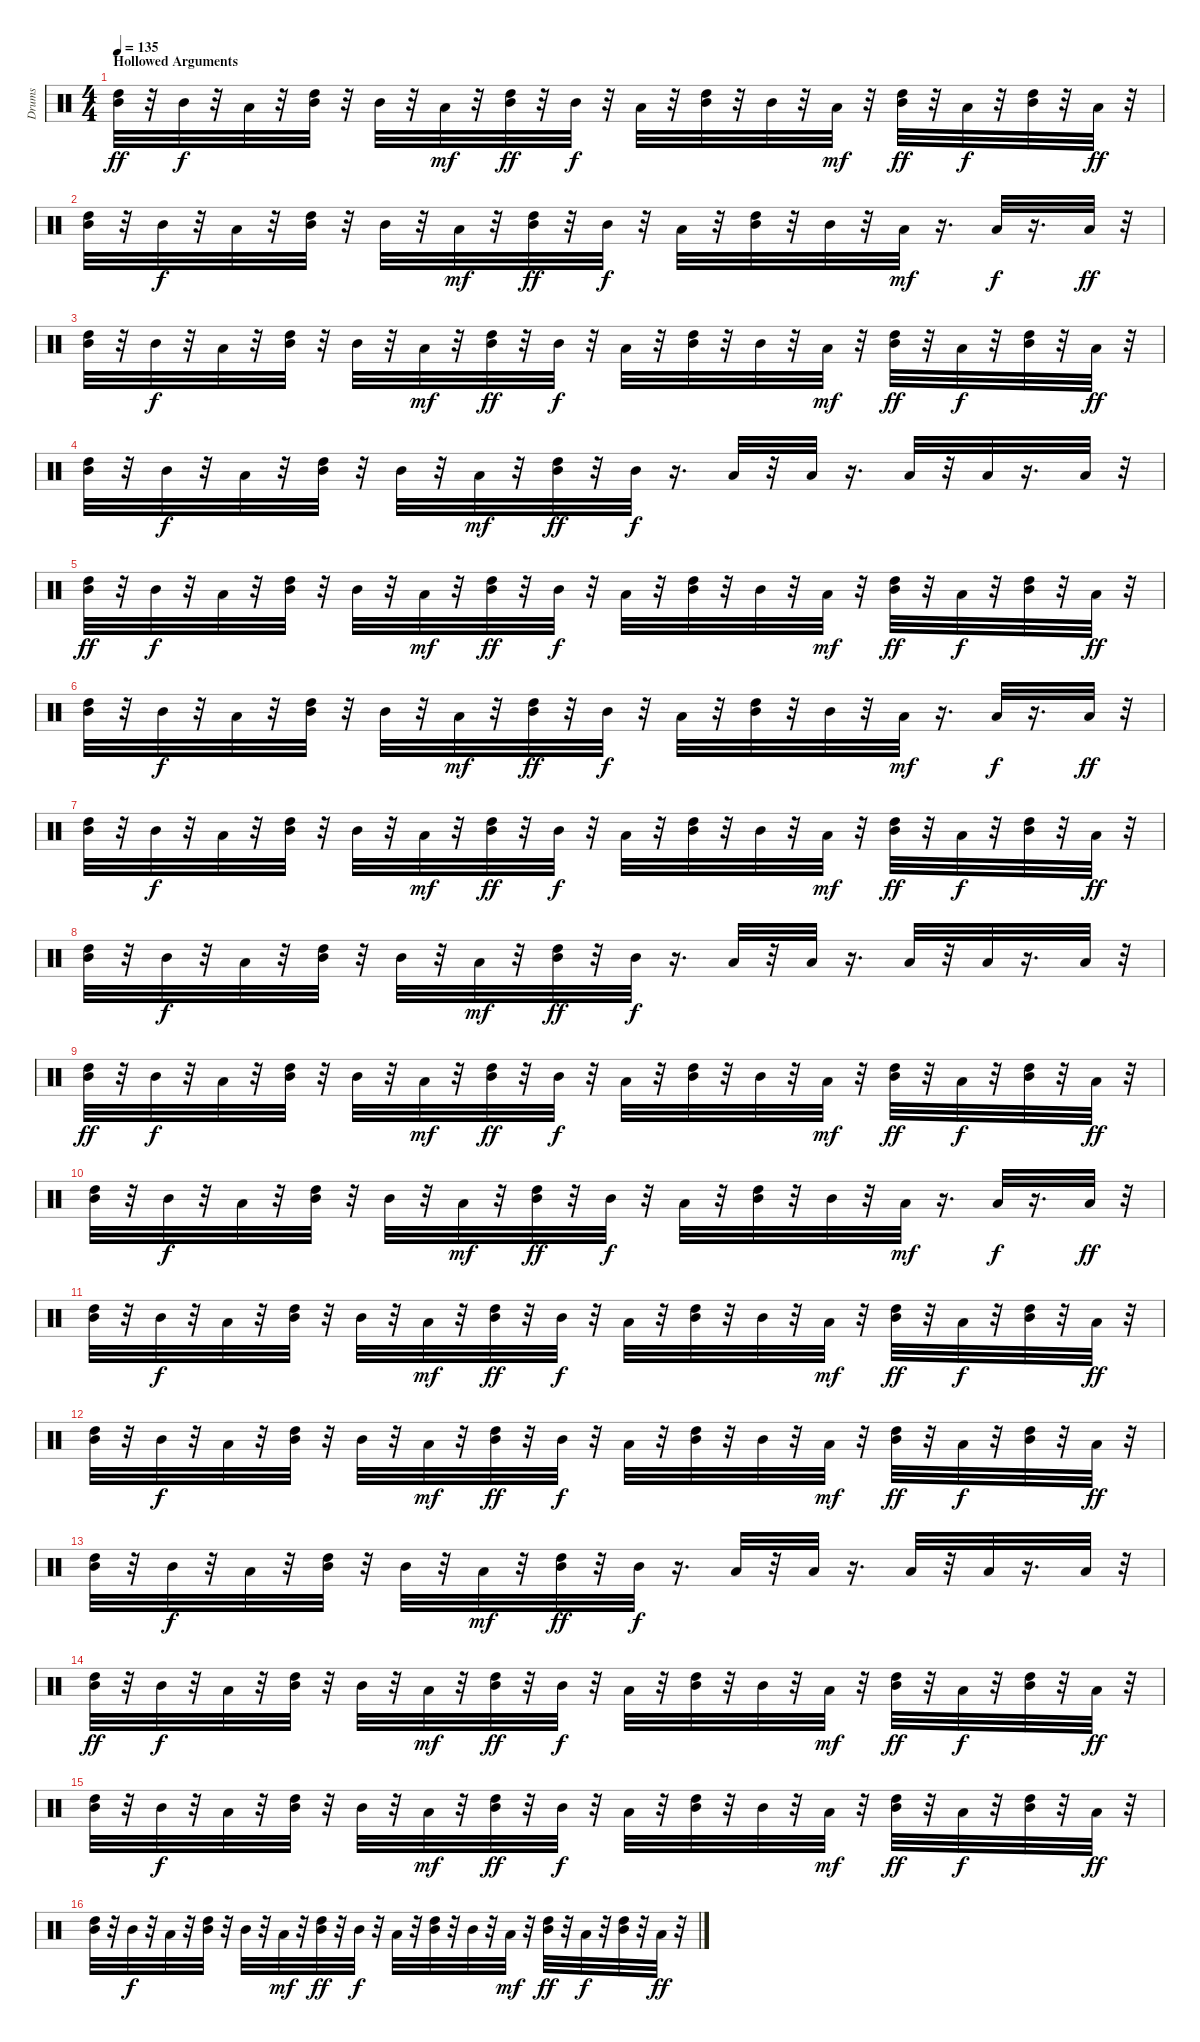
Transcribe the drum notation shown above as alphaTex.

\track ("Drums" "Drums") {instrument percussion}
\staff {score}
\articulation defaults
\ts (4 4)
\section ("" "Hollowed Arguments")
\tempo 135
\clef neutral
\ks c
("High Tom (hit)" "Mid Tom (hit)").32{dy ff} r.32 "Mid Tom (hit)".32{dy f} r.32 "Low Tom (hit)".32 r.32 ("High Tom (hit)" "Mid Tom (hit)").32 r.32 "Mid Tom (hit)".32 r.32 "Low Tom (hit)".32{dy mf} r.32 ("High Tom (hit)" "Mid Tom (hit)").32{dy ff} r.32 "Mid Tom (hit)".32{dy f} r.32 "Low Tom (hit)".32 r.32 ("High Tom (hit)" "Mid Tom (hit)").32 r.32 "Mid Tom (hit)".32 r.32 "Low Tom (hit)".32{dy mf} r.32 ("High Tom (hit)" "Mid Tom (hit)").32{dy ff} r.32 "Low Tom (hit)".32{dy f} r.32 ("High Tom (hit)" "Mid Tom (hit)").32 r.32 "Low Tom (hit)".32{dy ff} r.32 |
("High Tom (hit)" "Mid Tom (hit)").32 r.32 "Mid Tom (hit)".32{dy f} r.32 "Low Tom (hit)".32 r.32 ("High Tom (hit)" "Mid Tom (hit)").32 r.32 "Mid Tom (hit)".32 r.32 "Low Tom (hit)".32{dy mf} r.32 ("High Tom (hit)" "Mid Tom (hit)").32{dy ff} r.32 "Mid Tom (hit)".32{dy f} r.32 "Low Tom (hit)".32 r.32 ("High Tom (hit)" "Mid Tom (hit)").32 r.32 "Mid Tom (hit)".32 r.32 "Low Tom (hit)".32{dy mf} r.16{d} "Low Tom (hit)".32{dy f} r.16{d} "Low Tom (hit)".32{dy ff} r.32 |
("High Tom (hit)" "Mid Tom (hit)").32 r.32 "Mid Tom (hit)".32{dy f} r.32 "Low Tom (hit)".32 r.32 ("High Tom (hit)" "Mid Tom (hit)").32 r.32 "Mid Tom (hit)".32 r.32 "Low Tom (hit)".32{dy mf} r.32 ("High Tom (hit)" "Mid Tom (hit)").32{dy ff} r.32 "Mid Tom (hit)".32{dy f} r.32 "Low Tom (hit)".32 r.32 ("High Tom (hit)" "Mid Tom (hit)").32 r.32 "Mid Tom (hit)".32 r.32 "Low Tom (hit)".32{dy mf} r.32 ("High Tom (hit)" "Mid Tom (hit)").32{dy ff} r.32 "Low Tom (hit)".32{dy f} r.32 ("High Tom (hit)" "Mid Tom (hit)").32 r.32 "Low Tom (hit)".32{dy ff} r.32 |
("High Tom (hit)" "Mid Tom (hit)").32 r.32 "Mid Tom (hit)".32{dy f} r.32 "Low Tom (hit)".32 r.32 ("High Tom (hit)" "Mid Tom (hit)").32 r.32 "Mid Tom (hit)".32 r.32 "Low Tom (hit)".32{dy mf} r.32 ("High Tom (hit)" "Mid Tom (hit)").32{dy ff} r.32 "Mid Tom (hit)".32{dy f} r.16{d} "Low Tom (hit)".32 r.32 "Low Tom (hit)".32 r.16{d} "Low Tom (hit)".32 r.32 "Low Tom (hit)".32 r.16{d} "Low Tom (hit)".32 r.32 |
("High Tom (hit)" "Mid Tom (hit)").32{dy ff} r.32 "Mid Tom (hit)".32{dy f} r.32 "Low Tom (hit)".32 r.32 ("High Tom (hit)" "Mid Tom (hit)").32 r.32 "Mid Tom (hit)".32 r.32 "Low Tom (hit)".32{dy mf} r.32 ("High Tom (hit)" "Mid Tom (hit)").32{dy ff} r.32 "Mid Tom (hit)".32{dy f} r.32 "Low Tom (hit)".32 r.32 ("High Tom (hit)" "Mid Tom (hit)").32 r.32 "Mid Tom (hit)".32 r.32 "Low Tom (hit)".32{dy mf} r.32 ("High Tom (hit)" "Mid Tom (hit)").32{dy ff} r.32 "Low Tom (hit)".32{dy f} r.32 ("High Tom (hit)" "Mid Tom (hit)").32 r.32 "Low Tom (hit)".32{dy ff} r.32 |
("High Tom (hit)" "Mid Tom (hit)").32 r.32 "Mid Tom (hit)".32{dy f} r.32 "Low Tom (hit)".32 r.32 ("High Tom (hit)" "Mid Tom (hit)").32 r.32 "Mid Tom (hit)".32 r.32 "Low Tom (hit)".32{dy mf} r.32 ("High Tom (hit)" "Mid Tom (hit)").32{dy ff} r.32 "Mid Tom (hit)".32{dy f} r.32 "Low Tom (hit)".32 r.32 ("High Tom (hit)" "Mid Tom (hit)").32 r.32 "Mid Tom (hit)".32 r.32 "Low Tom (hit)".32{dy mf} r.16{d} "Low Tom (hit)".32{dy f} r.16{d} "Low Tom (hit)".32{dy ff} r.32 |
("High Tom (hit)" "Mid Tom (hit)").32 r.32 "Mid Tom (hit)".32{dy f} r.32 "Low Tom (hit)".32 r.32 ("High Tom (hit)" "Mid Tom (hit)").32 r.32 "Mid Tom (hit)".32 r.32 "Low Tom (hit)".32{dy mf} r.32 ("High Tom (hit)" "Mid Tom (hit)").32{dy ff} r.32 "Mid Tom (hit)".32{dy f} r.32 "Low Tom (hit)".32 r.32 ("High Tom (hit)" "Mid Tom (hit)").32 r.32 "Mid Tom (hit)".32 r.32 "Low Tom (hit)".32{dy mf} r.32 ("High Tom (hit)" "Mid Tom (hit)").32{dy ff} r.32 "Low Tom (hit)".32{dy f} r.32 ("High Tom (hit)" "Mid Tom (hit)").32 r.32 "Low Tom (hit)".32{dy ff} r.32 |
("High Tom (hit)" "Mid Tom (hit)").32 r.32 "Mid Tom (hit)".32{dy f} r.32 "Low Tom (hit)".32 r.32 ("High Tom (hit)" "Mid Tom (hit)").32 r.32 "Mid Tom (hit)".32 r.32 "Low Tom (hit)".32{dy mf} r.32 ("High Tom (hit)" "Mid Tom (hit)").32{dy ff} r.32 "Mid Tom (hit)".32{dy f} r.16{d} "Low Tom (hit)".32 r.32 "Low Tom (hit)".32 r.16{d} "Low Tom (hit)".32 r.32 "Low Tom (hit)".32 r.16{d} "Low Tom (hit)".32 r.32 |
("High Tom (hit)" "Mid Tom (hit)").32{dy ff} r.32 "Mid Tom (hit)".32{dy f} r.32 "Low Tom (hit)".32 r.32 ("High Tom (hit)" "Mid Tom (hit)").32 r.32 "Mid Tom (hit)".32 r.32 "Low Tom (hit)".32{dy mf} r.32 ("High Tom (hit)" "Mid Tom (hit)").32{dy ff} r.32 "Mid Tom (hit)".32{dy f} r.32 "Low Tom (hit)".32 r.32 ("High Tom (hit)" "Mid Tom (hit)").32 r.32 "Mid Tom (hit)".32 r.32 "Low Tom (hit)".32{dy mf} r.32 ("High Tom (hit)" "Mid Tom (hit)").32{dy ff} r.32 "Low Tom (hit)".32{dy f} r.32 ("High Tom (hit)" "Mid Tom (hit)").32 r.32 "Low Tom (hit)".32{dy ff} r.32 |
("High Tom (hit)" "Mid Tom (hit)").32 r.32 "Mid Tom (hit)".32{dy f} r.32 "Low Tom (hit)".32 r.32 ("High Tom (hit)" "Mid Tom (hit)").32 r.32 "Mid Tom (hit)".32 r.32 "Low Tom (hit)".32{dy mf} r.32 ("High Tom (hit)" "Mid Tom (hit)").32{dy ff} r.32 "Mid Tom (hit)".32{dy f} r.32 "Low Tom (hit)".32 r.32 ("High Tom (hit)" "Mid Tom (hit)").32 r.32 "Mid Tom (hit)".32 r.32 "Low Tom (hit)".32{dy mf} r.16{d} "Low Tom (hit)".32{dy f} r.16{d} "Low Tom (hit)".32{dy ff} r.32 |
("High Tom (hit)" "Mid Tom (hit)").32 r.32 "Mid Tom (hit)".32{dy f} r.32 "Low Tom (hit)".32 r.32 ("High Tom (hit)" "Mid Tom (hit)").32 r.32 "Mid Tom (hit)".32 r.32 "Low Tom (hit)".32{dy mf} r.32 ("High Tom (hit)" "Mid Tom (hit)").32{dy ff} r.32 "Mid Tom (hit)".32{dy f} r.32 "Low Tom (hit)".32 r.32 ("High Tom (hit)" "Mid Tom (hit)").32 r.32 "Mid Tom (hit)".32 r.32 "Low Tom (hit)".32{dy mf} r.32 ("High Tom (hit)" "Mid Tom (hit)").32{dy ff} r.32 "Low Tom (hit)".32{dy f} r.32 ("High Tom (hit)" "Mid Tom (hit)").32 r.32 "Low Tom (hit)".32{dy ff} r.32 |
("High Tom (hit)" "Mid Tom (hit)").32 r.32 "Mid Tom (hit)".32{dy f} r.32 "Low Tom (hit)".32 r.32 ("High Tom (hit)" "Mid Tom (hit)").32 r.32 "Mid Tom (hit)".32 r.32 "Low Tom (hit)".32{dy mf} r.32 ("High Tom (hit)" "Mid Tom (hit)").32{dy ff} r.32 "Mid Tom (hit)".32{dy f} r.32 "Low Tom (hit)".32 r.32 ("High Tom (hit)" "Mid Tom (hit)").32 r.32 "Mid Tom (hit)".32 r.32 "Low Tom (hit)".32{dy mf} r.32 ("High Tom (hit)" "Mid Tom (hit)").32{dy ff} r.32 "Low Tom (hit)".32{dy f} r.32 ("High Tom (hit)" "Mid Tom (hit)").32 r.32 "Low Tom (hit)".32{dy ff} r.32 |
("High Tom (hit)" "Mid Tom (hit)").32 r.32 "Mid Tom (hit)".32{dy f} r.32 "Low Tom (hit)".32 r.32 ("High Tom (hit)" "Mid Tom (hit)").32 r.32 "Mid Tom (hit)".32 r.32 "Low Tom (hit)".32{dy mf} r.32 ("High Tom (hit)" "Mid Tom (hit)").32{dy ff} r.32 "Mid Tom (hit)".32{dy f} r.16{d} "Low Tom (hit)".32 r.32 "Low Tom (hit)".32 r.16{d} "Low Tom (hit)".32 r.32 "Low Tom (hit)".32 r.16{d} "Low Tom (hit)".32 r.32 |
("High Tom (hit)" "Mid Tom (hit)").32{dy ff} r.32 "Mid Tom (hit)".32{dy f} r.32 "Low Tom (hit)".32 r.32 ("High Tom (hit)" "Mid Tom (hit)").32 r.32 "Mid Tom (hit)".32 r.32 "Low Tom (hit)".32{dy mf} r.32 ("High Tom (hit)" "Mid Tom (hit)").32{dy ff} r.32 "Mid Tom (hit)".32{dy f} r.32 "Low Tom (hit)".32 r.32 ("High Tom (hit)" "Mid Tom (hit)").32 r.32 "Mid Tom (hit)".32 r.32 "Low Tom (hit)".32{dy mf} r.32 ("High Tom (hit)" "Mid Tom (hit)").32{dy ff} r.32 "Low Tom (hit)".32{dy f} r.32 ("High Tom (hit)" "Mid Tom (hit)").32 r.32 "Low Tom (hit)".32{dy ff} r.32 |
("High Tom (hit)" "Mid Tom (hit)").32 r.32 "Mid Tom (hit)".32{dy f} r.32 "Low Tom (hit)".32 r.32 ("High Tom (hit)" "Mid Tom (hit)").32 r.32 "Mid Tom (hit)".32 r.32 "Low Tom (hit)".32{dy mf} r.32 ("High Tom (hit)" "Mid Tom (hit)").32{dy ff} r.32 "Mid Tom (hit)".32{dy f} r.32 "Low Tom (hit)".32 r.32 ("High Tom (hit)" "Mid Tom (hit)").32 r.32 "Mid Tom (hit)".32 r.32 "Low Tom (hit)".32{dy mf} r.32 ("High Tom (hit)" "Mid Tom (hit)").32{dy ff} r.32 "Low Tom (hit)".32{dy f} r.32 ("High Tom (hit)" "Mid Tom (hit)").32 r.32 "Low Tom (hit)".32{dy ff} r.32 |
("High Tom (hit)" "Mid Tom (hit)").32 r.32 "Mid Tom (hit)".32{dy f} r.32 "Low Tom (hit)".32 r.32 ("High Tom (hit)" "Mid Tom (hit)").32 r.32 "Mid Tom (hit)".32 r.32 "Low Tom (hit)".32{dy mf} r.32 ("High Tom (hit)" "Mid Tom (hit)").32{dy ff} r.32 "Mid Tom (hit)".32{dy f} r.32 "Low Tom (hit)".32 r.32 ("High Tom (hit)" "Mid Tom (hit)").32 r.32 "Mid Tom (hit)".32 r.32 "Low Tom (hit)".32{dy mf} r.32 ("High Tom (hit)" "Mid Tom (hit)").32{dy ff} r.32 "Low Tom (hit)".32{dy f} r.32 ("High Tom (hit)" "Mid Tom (hit)").32 r.32 "Low Tom (hit)".32{dy ff} r.32
